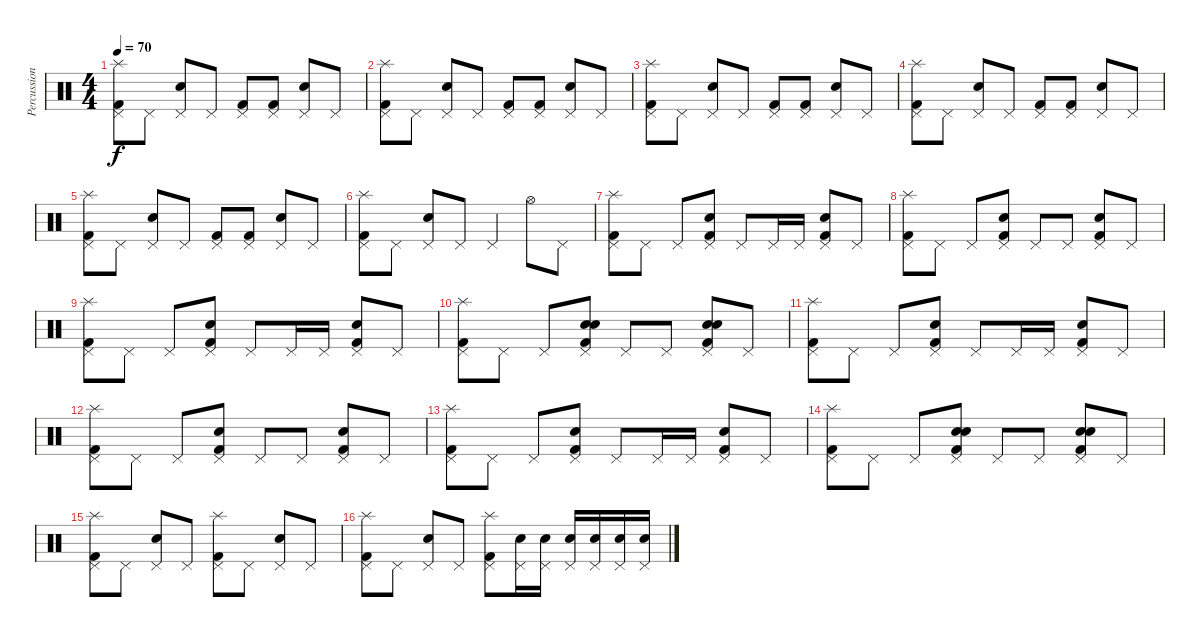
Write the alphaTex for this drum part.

\track ("Percussion" "Percussion") {instrument percussion}
\staff {score}
\articulation defaults
\ts (4 4)
\tempo 70
\clef neutral
\ks c
("Kick (hit) 2" "Pedal Hi-Hat (hit)" "Splash (hit)").8{dy f} "Pedal Hi-Hat (hit)".8 ("Pedal Hi-Hat (hit)" "Electric Snare (hit)").8 "Pedal Hi-Hat (hit)".8 ("Kick (hit) 2" "Pedal Hi-Hat (hit)").8 ("Kick (hit) 2" "Pedal Hi-Hat (hit)").8 ("Pedal Hi-Hat (hit)" "Electric Snare (hit)").8 "Pedal Hi-Hat (hit)".8 |
("Kick (hit) 2" "Pedal Hi-Hat (hit)" "Splash (hit)").8 "Pedal Hi-Hat (hit)".8 ("Pedal Hi-Hat (hit)" "Electric Snare (hit)").8 "Pedal Hi-Hat (hit)".8 ("Kick (hit) 2" "Pedal Hi-Hat (hit)").8 ("Kick (hit) 2" "Pedal Hi-Hat (hit)").8 ("Pedal Hi-Hat (hit)" "Electric Snare (hit)").8 "Pedal Hi-Hat (hit)".8 |
("Kick (hit) 2" "Pedal Hi-Hat (hit)" "Splash (hit)").8 "Pedal Hi-Hat (hit)".8 ("Pedal Hi-Hat (hit)" "Electric Snare (hit)").8 "Pedal Hi-Hat (hit)".8 ("Kick (hit) 2" "Pedal Hi-Hat (hit)").8 ("Kick (hit) 2" "Pedal Hi-Hat (hit)").8 ("Pedal Hi-Hat (hit)" "Electric Snare (hit)").8 "Pedal Hi-Hat (hit)".8 |
("Kick (hit) 2" "Pedal Hi-Hat (hit)" "Splash (hit)").8 "Pedal Hi-Hat (hit)".8 ("Pedal Hi-Hat (hit)" "Electric Snare (hit)").8 "Pedal Hi-Hat (hit)".8 ("Kick (hit) 2" "Pedal Hi-Hat (hit)").8 ("Kick (hit) 2" "Pedal Hi-Hat (hit)").8 ("Pedal Hi-Hat (hit)" "Electric Snare (hit)").8 "Pedal Hi-Hat (hit)".8 |
("Kick (hit) 2" "Pedal Hi-Hat (hit)" "Splash (hit)").8 "Pedal Hi-Hat (hit)".8 ("Pedal Hi-Hat (hit)" "Electric Snare (hit)").8 "Pedal Hi-Hat (hit)".8 ("Kick (hit) 2" "Pedal Hi-Hat (hit)").8 ("Kick (hit) 2" "Pedal Hi-Hat (hit)").8 ("Pedal Hi-Hat (hit)" "Electric Snare (hit)").8 "Pedal Hi-Hat (hit)".8 |
("Kick (hit) 2" "Pedal Hi-Hat (hit)" "Splash (hit)").8 "Pedal Hi-Hat (hit)".8 ("Pedal Hi-Hat (hit)" "Electric Snare (hit)").8 "Pedal Hi-Hat (hit)".8 "Pedal Hi-Hat (hit)".4 "Hi-Hat (open)".8 "Pedal Hi-Hat (hit)".8 |
("Kick (hit) 2" "Pedal Hi-Hat (hit)" "Splash (hit)").8 "Pedal Hi-Hat (hit)".8 "Pedal Hi-Hat (hit)".8 ("Kick (hit) 2" "Pedal Hi-Hat (hit)" "Electric Snare (hit)").8 "Pedal Hi-Hat (hit)".8 "Pedal Hi-Hat (hit)".16 "Pedal Hi-Hat (hit)".16 ("Kick (hit) 2" "Pedal Hi-Hat (hit)" "Electric Snare (hit)").8 "Pedal Hi-Hat (hit)".8 |
("Kick (hit) 2" "Pedal Hi-Hat (hit)" "Splash (hit)").8 "Pedal Hi-Hat (hit)".8 "Pedal Hi-Hat (hit)".8 ("Kick (hit) 2" "Pedal Hi-Hat (hit)" "Electric Snare (hit)").8 "Pedal Hi-Hat (hit)".8 "Pedal Hi-Hat (hit)".8 ("Kick (hit) 2" "Pedal Hi-Hat (hit)" "Electric Snare (hit)").8 "Pedal Hi-Hat (hit)".8 |
("Kick (hit) 2" "Pedal Hi-Hat (hit)" "Splash (hit)").8 "Pedal Hi-Hat (hit)".8 "Pedal Hi-Hat (hit)".8 ("Kick (hit) 2" "Pedal Hi-Hat (hit)" "Electric Snare (hit)").8 "Pedal Hi-Hat (hit)".8 "Pedal Hi-Hat (hit)".16 "Pedal Hi-Hat (hit)".16 ("Kick (hit) 2" "Pedal Hi-Hat (hit)" "Electric Snare (hit)").8 "Pedal Hi-Hat (hit)".8 |
("Kick (hit) 2" "Pedal Hi-Hat (hit)" "Splash (hit)").8 "Pedal Hi-Hat (hit)".8 "Pedal Hi-Hat (hit)".8 ("Kick (hit) 2" "Pedal Hi-Hat (hit)" "Electric Snare (hit)" "Electric Snare (hit)").8 "Pedal Hi-Hat (hit)".8 "Pedal Hi-Hat (hit)".8 ("Kick (hit) 2" "Pedal Hi-Hat (hit)" "Electric Snare (hit)" "Electric Snare (hit)").8 "Pedal Hi-Hat (hit)".8 |
("Kick (hit) 2" "Pedal Hi-Hat (hit)" "Splash (hit)").8 "Pedal Hi-Hat (hit)".8 "Pedal Hi-Hat (hit)".8 ("Kick (hit) 2" "Pedal Hi-Hat (hit)" "Electric Snare (hit)").8 "Pedal Hi-Hat (hit)".8 "Pedal Hi-Hat (hit)".16 "Pedal Hi-Hat (hit)".16 ("Kick (hit) 2" "Pedal Hi-Hat (hit)" "Electric Snare (hit)").8 "Pedal Hi-Hat (hit)".8 |
("Kick (hit) 2" "Pedal Hi-Hat (hit)" "Splash (hit)").8 "Pedal Hi-Hat (hit)".8 "Pedal Hi-Hat (hit)".8 ("Kick (hit) 2" "Pedal Hi-Hat (hit)" "Electric Snare (hit)").8 "Pedal Hi-Hat (hit)".8 "Pedal Hi-Hat (hit)".8 ("Kick (hit) 2" "Pedal Hi-Hat (hit)" "Electric Snare (hit)").8 "Pedal Hi-Hat (hit)".8 |
("Kick (hit) 2" "Pedal Hi-Hat (hit)" "Splash (hit)").8 "Pedal Hi-Hat (hit)".8 "Pedal Hi-Hat (hit)".8 ("Kick (hit) 2" "Pedal Hi-Hat (hit)" "Electric Snare (hit)").8 "Pedal Hi-Hat (hit)".8 "Pedal Hi-Hat (hit)".16 "Pedal Hi-Hat (hit)".16 ("Kick (hit) 2" "Pedal Hi-Hat (hit)" "Electric Snare (hit)").8 "Pedal Hi-Hat (hit)".8 |
("Kick (hit) 2" "Pedal Hi-Hat (hit)" "Splash (hit)").8 "Pedal Hi-Hat (hit)".8 "Pedal Hi-Hat (hit)".8 ("Kick (hit) 2" "Pedal Hi-Hat (hit)" "Electric Snare (hit)" "Electric Snare (hit)").8 "Pedal Hi-Hat (hit)".8 "Pedal Hi-Hat (hit)".8 ("Kick (hit) 2" "Pedal Hi-Hat (hit)" "Electric Snare (hit)" "Electric Snare (hit)").8 "Pedal Hi-Hat (hit)".8 |
("Kick (hit) 2" "Pedal Hi-Hat (hit)" "Splash (hit)").8 "Pedal Hi-Hat (hit)".8 ("Pedal Hi-Hat (hit)" "Electric Snare (hit)").8 "Pedal Hi-Hat (hit)".8 ("Kick (hit) 2" "Pedal Hi-Hat (hit)" "Splash (hit)").8 "Pedal Hi-Hat (hit)".8 ("Pedal Hi-Hat (hit)" "Electric Snare (hit)").8 "Pedal Hi-Hat (hit)".8 |
("Kick (hit) 2" "Pedal Hi-Hat (hit)" "Splash (hit)").8 "Pedal Hi-Hat (hit)".8 ("Pedal Hi-Hat (hit)" "Electric Snare (hit)").8 "Pedal Hi-Hat (hit)".8 ("Kick (hit) 2" "Pedal Hi-Hat (hit)" "Splash (hit)").8 ("Pedal Hi-Hat (hit)" "Electric Snare (hit)").16 ("Pedal Hi-Hat (hit)" "Electric Snare (hit)").16 ("Pedal Hi-Hat (hit)" "Electric Snare (hit)").16 ("Pedal Hi-Hat (hit)" "Electric Snare (hit)").16 ("Pedal Hi-Hat (hit)" "Electric Snare (hit)").16 ("Pedal Hi-Hat (hit)" "Electric Snare (hit)").16
